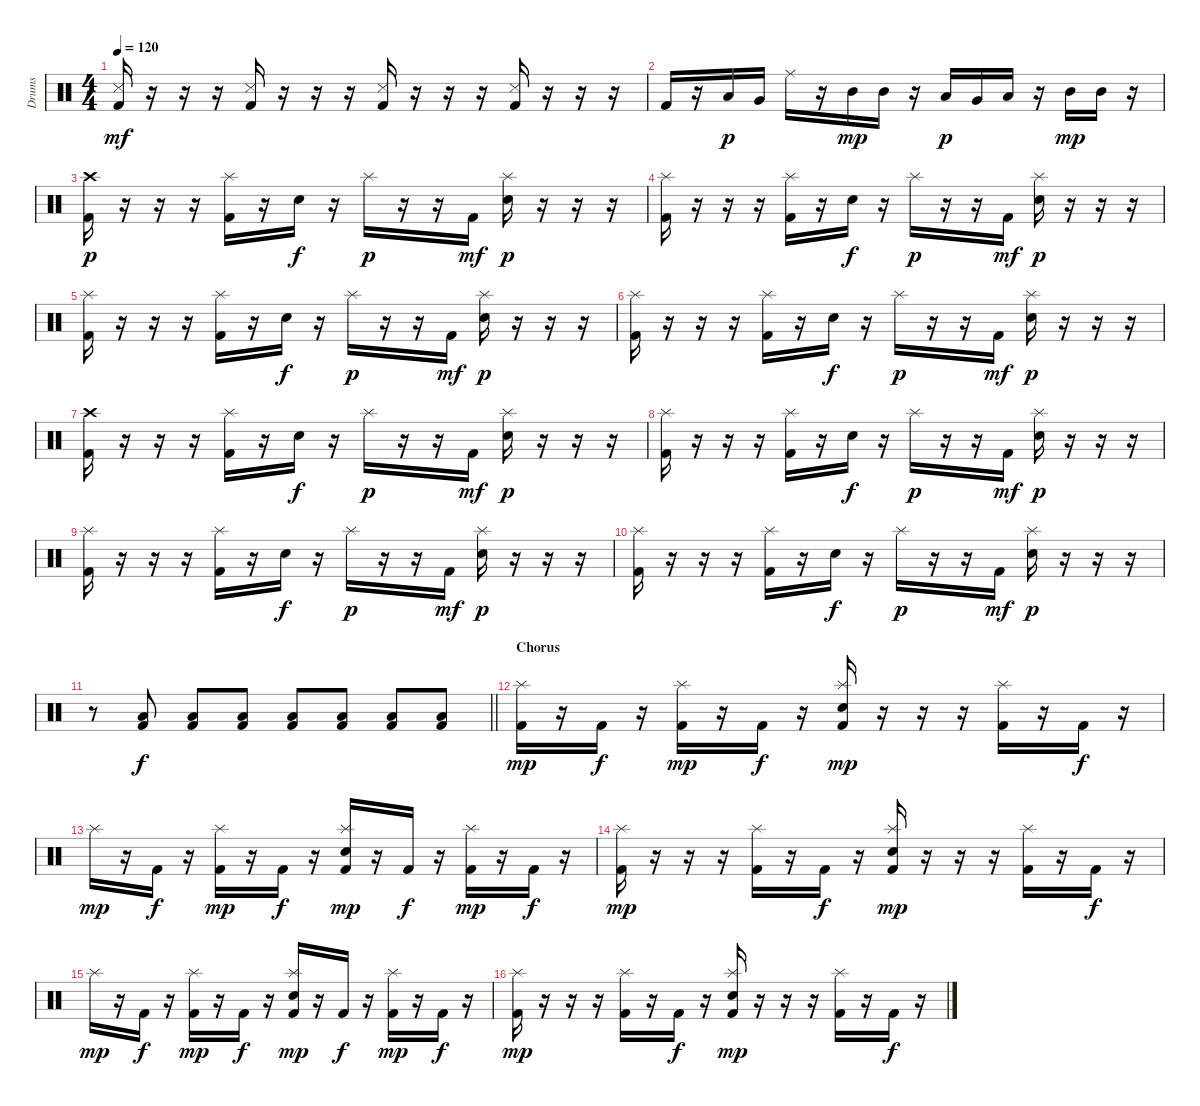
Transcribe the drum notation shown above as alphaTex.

\track ("Drums" "Drums") {instrument percussion}
\staff {score}
\articulation defaults
\ts (4 4)
\tempo 120
\clef neutral
\ks c
("Kick (hit) 2" "Snare (side stick) 3").16{dy mf} r.16 r.16 r.16 ("Kick (hit) 2" "Snare (side stick) 3").16 r.16 r.16 r.16 ("Kick (hit) 2" "Snare (side stick) 3").16 r.16 r.16 r.16 ("Kick (hit) 2" "Snare (side stick) 3").16 r.16 r.16 r.16 |
"Kick (hit) 2".16 r.16 "Low Tom (hit)".16{dy p} "Very Low Tom (hit)".16 "Ride (middle)".16 r.16 "Mid Tom (hit)".16{dy mp} "Mid Tom (hit)".16 r.16 "Low Tom (hit)".16{dy p} "Very Low Tom (hit)".16 "Low Floor Tom (hit)".16 r.16 "Mid Tom (hit)".16{dy mp} "Mid Tom (hit)".16 r.16 |
("Kick (hit) 2" "Crash high (hit)").16{dy p} r.16 r.16 r.16 ("Kick (hit) 2" "Splash (hit)").16 r.16 "Snare (hit) 2".16{dy f} r.16 "Splash (hit)".16{dy p} r.16 r.16 "Kick (hit) 2".16{dy mf} ("Splash (hit)" "Snare (hit) 2").16{dy p} r.16 r.16 r.16 |
("Kick (hit) 2" "Splash (hit)").16 r.16 r.16 r.16 ("Kick (hit) 2" "Splash (hit)").16 r.16 "Snare (hit) 2".16{dy f} r.16 "Splash (hit)".16{dy p} r.16 r.16 "Kick (hit) 2".16{dy mf} ("Splash (hit)" "Snare (hit) 2").16{dy p} r.16 r.16 r.16 |
("Kick (hit) 2" "Splash (hit)").16 r.16 r.16 r.16 ("Kick (hit) 2" "Splash (hit)").16 r.16 "Snare (hit) 2".16{dy f} r.16 "Splash (hit)".16{dy p} r.16 r.16 "Kick (hit) 2".16{dy mf} ("Splash (hit)" "Snare (hit) 2").16{dy p} r.16 r.16 r.16 |
("Kick (hit) 2" "Splash (hit)").16 r.16 r.16 r.16 ("Kick (hit) 2" "Splash (hit)").16 r.16 "Snare (hit) 2".16{dy f} r.16 "Splash (hit)".16{dy p} r.16 r.16 "Kick (hit) 2".16{dy mf} ("Splash (hit)" "Snare (hit) 2").16{dy p} r.16 r.16 r.16 |
("Kick (hit) 2" "Crash high (hit)").16 r.16 r.16 r.16 ("Kick (hit) 2" "Splash (hit)").16 r.16 "Snare (hit) 2".16{dy f} r.16 "Splash (hit)".16{dy p} r.16 r.16 "Kick (hit) 2".16{dy mf} ("Splash (hit)" "Snare (hit) 2").16{dy p} r.16 r.16 r.16 |
("Kick (hit) 2" "Splash (hit)").16 r.16 r.16 r.16 ("Kick (hit) 2" "Splash (hit)").16 r.16 "Snare (hit) 2".16{dy f} r.16 "Splash (hit)".16{dy p} r.16 r.16 "Kick (hit) 2".16{dy mf} ("Splash (hit)" "Snare (hit) 2").16{dy p} r.16 r.16 r.16 |
("Kick (hit) 2" "Splash (hit)").16 r.16 r.16 r.16 ("Kick (hit) 2" "Splash (hit)").16 r.16 "Snare (hit) 2".16{dy f} r.16 "Splash (hit)".16{dy p} r.16 r.16 "Kick (hit) 2".16{dy mf} ("Splash (hit)" "Snare (hit) 2").16{dy p} r.16 r.16 r.16 |
("Kick (hit) 2" "Splash (hit)").16 r.16 r.16 r.16 ("Kick (hit) 2" "Splash (hit)").16 r.16 "Snare (hit) 2".16{dy f} r.16 "Splash (hit)".16{dy p} r.16 r.16 "Kick (hit) 2".16{dy mf} ("Splash (hit)" "Snare (hit) 2").16{dy p} r.16 r.16 r.16 |
\barLineRight lightlight
r.8 ("Kick (hit) 2" "Low Floor Tom (hit)").8{dy f} ("Kick (hit) 2" "Low Floor Tom (hit)").8 ("Kick (hit) 2" "Low Floor Tom (hit)").8 ("Kick (hit) 2" "Low Floor Tom (hit)").8 ("Kick (hit) 2" "Low Floor Tom (hit)").8 ("Kick (hit) 2" "Low Floor Tom (hit)").8 ("Kick (hit) 2" "Low Floor Tom (hit)").8 |
\section ("" "Chorus")
("Kick (hit) 2" "Splash (hit)").16{dy mp} r.16 "Kick (hit) 2".16{dy f} r.16 ("Kick (hit) 2" "Splash (hit)").16{dy mp} r.16 "Kick (hit) 2".16{dy f} r.16 ("Kick (hit) 2" "Splash (hit)" "Snare (hit) 2").16{dy mp} r.16 r.16 r.16 ("Kick (hit) 2" "Splash (hit)").16 r.16 "Kick (hit) 2".16{dy f} r.16 |
"Splash (hit)".16{dy mp} r.16 "Kick (hit) 2".16{dy f} r.16 ("Kick (hit) 2" "Splash (hit)").16{dy mp} r.16 "Kick (hit) 2".16{dy f} r.16 ("Kick (hit) 2" "Splash (hit)" "Snare (hit) 2").16{dy mp} r.16 "Kick (hit) 2".16{dy f} r.16 ("Kick (hit) 2" "Splash (hit)").16{dy mp} r.16 "Kick (hit) 2".16{dy f} r.16 |
("Kick (hit) 2" "Splash (hit)").16{dy mp} r.16 r.16 r.16 ("Kick (hit) 2" "Splash (hit)").16 r.16 "Kick (hit) 2".16{dy f} r.16 ("Kick (hit) 2" "Splash (hit)" "Snare (hit) 2").16{dy mp} r.16 r.16 r.16 ("Kick (hit) 2" "Splash (hit)").16 r.16 "Kick (hit) 2".16{dy f} r.16 |
"Splash (hit)".16{dy mp} r.16 "Kick (hit) 2".16{dy f} r.16 ("Kick (hit) 2" "Splash (hit)").16{dy mp} r.16 "Kick (hit) 2".16{dy f} r.16 ("Kick (hit) 2" "Splash (hit)" "Snare (hit) 2").16{dy mp} r.16 "Kick (hit) 2".16{dy f} r.16 ("Kick (hit) 2" "Splash (hit)").16{dy mp} r.16 "Kick (hit) 2".16{dy f} r.16 |
("Kick (hit) 2" "Splash (hit)").16{dy mp} r.16 r.16 r.16 ("Kick (hit) 2" "Splash (hit)").16 r.16 "Kick (hit) 2".16{dy f} r.16 ("Kick (hit) 2" "Splash (hit)" "Snare (hit) 2").16{dy mp} r.16 r.16 r.16 ("Kick (hit) 2" "Splash (hit)").16 r.16 "Kick (hit) 2".16{dy f} r.16
